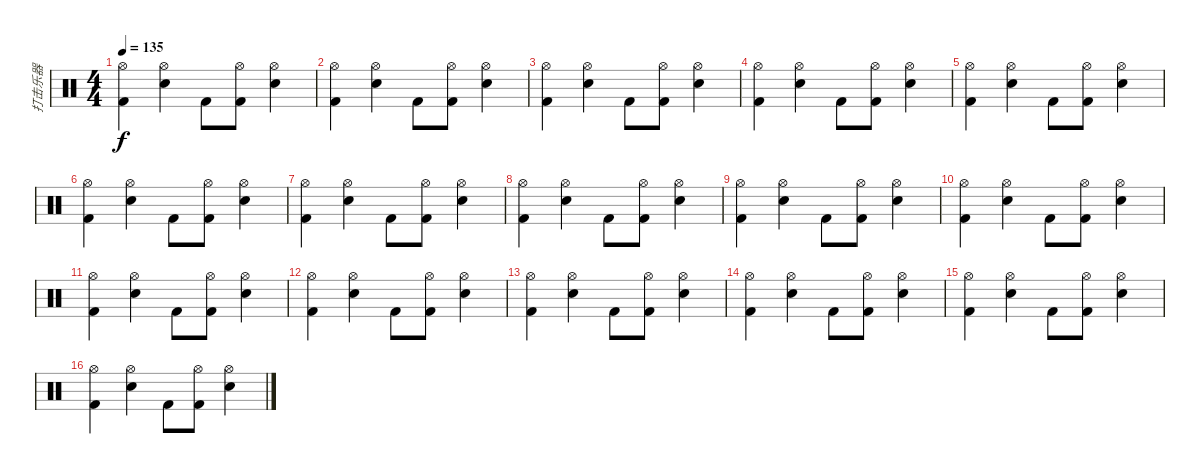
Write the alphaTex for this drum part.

\track ("打击乐器" "打击乐器") {instrument percussion}
\staff {score}
\articulation defaults
\ts (4 4)
\tempo 135
\clef neutral
\ks c
("Hi-Hat (open)" "Kick (hit) 2").4{dy f} ("Hi-Hat (open)" "Electric Snare (hit)").4 "Kick (hit) 2".8 ("Hi-Hat (open)" "Kick (hit) 2").8 ("Hi-Hat (open)" "Electric Snare (hit)").4 |
("Hi-Hat (open)" "Kick (hit) 2").4 ("Hi-Hat (open)" "Electric Snare (hit)").4 "Kick (hit) 2".8 ("Hi-Hat (open)" "Kick (hit) 2").8 ("Hi-Hat (open)" "Electric Snare (hit)").4 |
("Hi-Hat (open)" "Kick (hit) 2").4 ("Hi-Hat (open)" "Electric Snare (hit)").4 "Kick (hit) 2".8 ("Hi-Hat (open)" "Kick (hit) 2").8 ("Hi-Hat (open)" "Electric Snare (hit)").4 |
("Hi-Hat (open)" "Kick (hit) 2").4 ("Hi-Hat (open)" "Electric Snare (hit)").4 "Kick (hit) 2".8 ("Hi-Hat (open)" "Kick (hit) 2").8 ("Hi-Hat (open)" "Electric Snare (hit)").4 |
("Hi-Hat (open)" "Kick (hit) 2").4 ("Hi-Hat (open)" "Electric Snare (hit)").4 "Kick (hit) 2".8 ("Hi-Hat (open)" "Kick (hit) 2").8 ("Hi-Hat (open)" "Electric Snare (hit)").4 |
("Hi-Hat (open)" "Kick (hit) 2").4 ("Hi-Hat (open)" "Electric Snare (hit)").4 "Kick (hit) 2".8 ("Hi-Hat (open)" "Kick (hit) 2").8 ("Hi-Hat (open)" "Electric Snare (hit)").4 |
("Hi-Hat (open)" "Kick (hit) 2").4 ("Hi-Hat (open)" "Electric Snare (hit)").4 "Kick (hit) 2".8 ("Hi-Hat (open)" "Kick (hit) 2").8 ("Hi-Hat (open)" "Electric Snare (hit)").4 |
("Hi-Hat (open)" "Kick (hit) 2").4 ("Hi-Hat (open)" "Electric Snare (hit)").4 "Kick (hit) 2".8 ("Hi-Hat (open)" "Kick (hit) 2").8 ("Hi-Hat (open)" "Electric Snare (hit)").4 |
("Hi-Hat (open)" "Kick (hit) 2").4 ("Hi-Hat (open)" "Electric Snare (hit)").4 "Kick (hit) 2".8 ("Hi-Hat (open)" "Kick (hit) 2").8 ("Hi-Hat (open)" "Electric Snare (hit)").4 |
("Hi-Hat (open)" "Kick (hit) 2").4 ("Hi-Hat (open)" "Electric Snare (hit)").4 "Kick (hit) 2".8 ("Hi-Hat (open)" "Kick (hit) 2").8 ("Hi-Hat (open)" "Electric Snare (hit)").4 |
("Hi-Hat (open)" "Kick (hit) 2").4 ("Hi-Hat (open)" "Electric Snare (hit)").4 "Kick (hit) 2".8 ("Hi-Hat (open)" "Kick (hit) 2").8 ("Hi-Hat (open)" "Electric Snare (hit)").4 |
("Hi-Hat (open)" "Kick (hit) 2").4 ("Hi-Hat (open)" "Electric Snare (hit)").4 "Kick (hit) 2".8 ("Hi-Hat (open)" "Kick (hit) 2").8 ("Hi-Hat (open)" "Electric Snare (hit)").4 |
("Hi-Hat (open)" "Kick (hit) 2").4 ("Hi-Hat (open)" "Electric Snare (hit)").4 "Kick (hit) 2".8 ("Hi-Hat (open)" "Kick (hit) 2").8 ("Hi-Hat (open)" "Electric Snare (hit)").4 |
("Hi-Hat (open)" "Kick (hit) 2").4 ("Hi-Hat (open)" "Electric Snare (hit)").4 "Kick (hit) 2".8 ("Hi-Hat (open)" "Kick (hit) 2").8 ("Hi-Hat (open)" "Electric Snare (hit)").4 |
("Hi-Hat (open)" "Kick (hit) 2").4 ("Hi-Hat (open)" "Electric Snare (hit)").4 "Kick (hit) 2".8 ("Hi-Hat (open)" "Kick (hit) 2").8 ("Hi-Hat (open)" "Electric Snare (hit)").4 |
("Hi-Hat (open)" "Kick (hit) 2").4 ("Hi-Hat (open)" "Electric Snare (hit)").4 "Kick (hit) 2".8 ("Hi-Hat (open)" "Kick (hit) 2").8 ("Hi-Hat (open)" "Electric Snare (hit)").4
